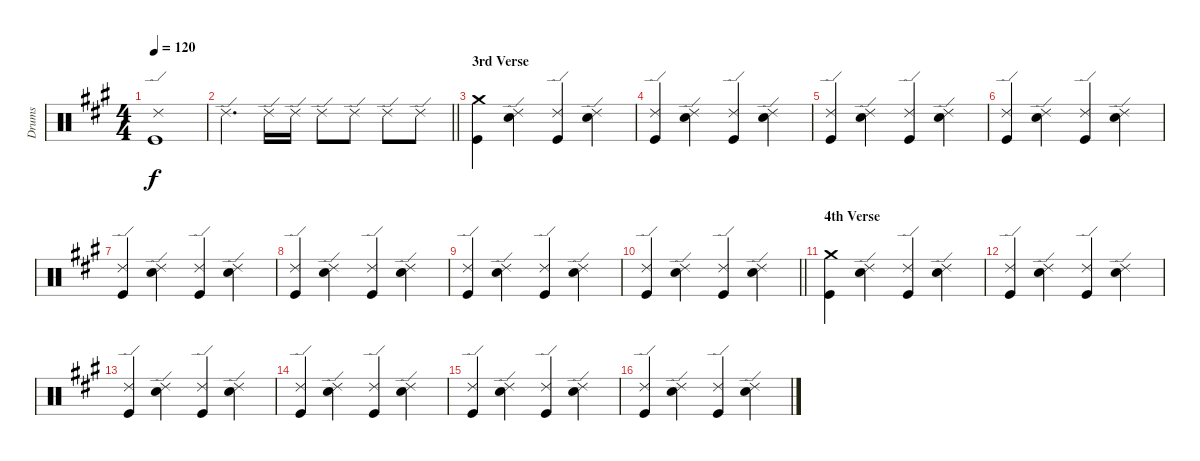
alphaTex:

\track ("Drums" "Drums") {instrument percussion}
\staff {score}
\articulation defaults
\ts (4 4)
\tempo 120
\clef neutral
\ks f#minor
("Ride (edge) 2" "Kick (hit)").1{dy f} |
\barLineRight lightlight "Ride (edge) 2".4{d} "Ride (edge) 2".16 "Ride (edge) 2".16 "Ride (edge) 2".8 "Ride (edge) 2".8 "Ride (edge) 2".8 "Ride (edge) 2".8
|
\section ("" "3rd Verse")
("Crash medium (hit)" "Kick (hit)").4 ("Ride (edge) 2" "Electric Snare (hit)").4 ("Ride (edge) 2" "Kick (hit)").4 ("Ride (edge) 2" "Electric Snare (hit)").4 |
("Ride (edge) 2" "Kick (hit)").4 ("Ride (edge) 2" "Electric Snare (hit)").4 ("Ride (edge) 2" "Kick (hit)").4 ("Ride (edge) 2" "Electric Snare (hit)").4 |
("Ride (edge) 2" "Kick (hit)").4 ("Ride (edge) 2" "Electric Snare (hit)").4 ("Ride (edge) 2" "Kick (hit)").4 ("Ride (edge) 2" "Electric Snare (hit)").4 |
("Ride (edge) 2" "Kick (hit)").4 ("Ride (edge) 2" "Electric Snare (hit)").4 ("Ride (edge) 2" "Kick (hit)").4 ("Ride (edge) 2" "Electric Snare (hit)").4 |
("Ride (edge) 2" "Kick (hit)").4 ("Ride (edge) 2" "Electric Snare (hit)").4 ("Ride (edge) 2" "Kick (hit)").4 ("Ride (edge) 2" "Electric Snare (hit)").4 |
("Ride (edge) 2" "Kick (hit)").4 ("Ride (edge) 2" "Electric Snare (hit)").4 ("Ride (edge) 2" "Kick (hit)").4 ("Ride (edge) 2" "Electric Snare (hit)").4 |
("Ride (edge) 2" "Kick (hit)").4 ("Ride (edge) 2" "Electric Snare (hit)").4 ("Ride (edge) 2" "Kick (hit)").4 ("Ride (edge) 2" "Electric Snare (hit)").4 |
\barLineRight lightlight
("Ride (edge) 2" "Kick (hit)").4 ("Ride (edge) 2" "Electric Snare (hit)").4 ("Ride (edge) 2" "Kick (hit)").4 ("Ride (edge) 2" "Electric Snare (hit)").4 |
\section ("" "4th Verse")
("Crash medium (hit)" "Kick (hit)").4 ("Ride (edge) 2" "Electric Snare (hit)").4 ("Ride (edge) 2" "Kick (hit)").4 ("Ride (edge) 2" "Electric Snare (hit)").4 |
("Ride (edge) 2" "Kick (hit)").4 ("Ride (edge) 2" "Electric Snare (hit)").4 ("Ride (edge) 2" "Kick (hit)").4 ("Ride (edge) 2" "Electric Snare (hit)").4 |
("Ride (edge) 2" "Kick (hit)").4 ("Ride (edge) 2" "Electric Snare (hit)").4 ("Ride (edge) 2" "Kick (hit)").4 ("Ride (edge) 2" "Electric Snare (hit)").4 |
("Ride (edge) 2" "Kick (hit)").4 ("Ride (edge) 2" "Electric Snare (hit)").4 ("Ride (edge) 2" "Kick (hit)").4 ("Ride (edge) 2" "Electric Snare (hit)").4 |
("Ride (edge) 2" "Kick (hit)").4 ("Ride (edge) 2" "Electric Snare (hit)").4 ("Ride (edge) 2" "Kick (hit)").4 ("Ride (edge) 2" "Electric Snare (hit)").4 |
("Ride (edge) 2" "Kick (hit)").4 ("Ride (edge) 2" "Electric Snare (hit)").4 ("Ride (edge) 2" "Kick (hit)").4 ("Ride (edge) 2" "Electric Snare (hit)").4
